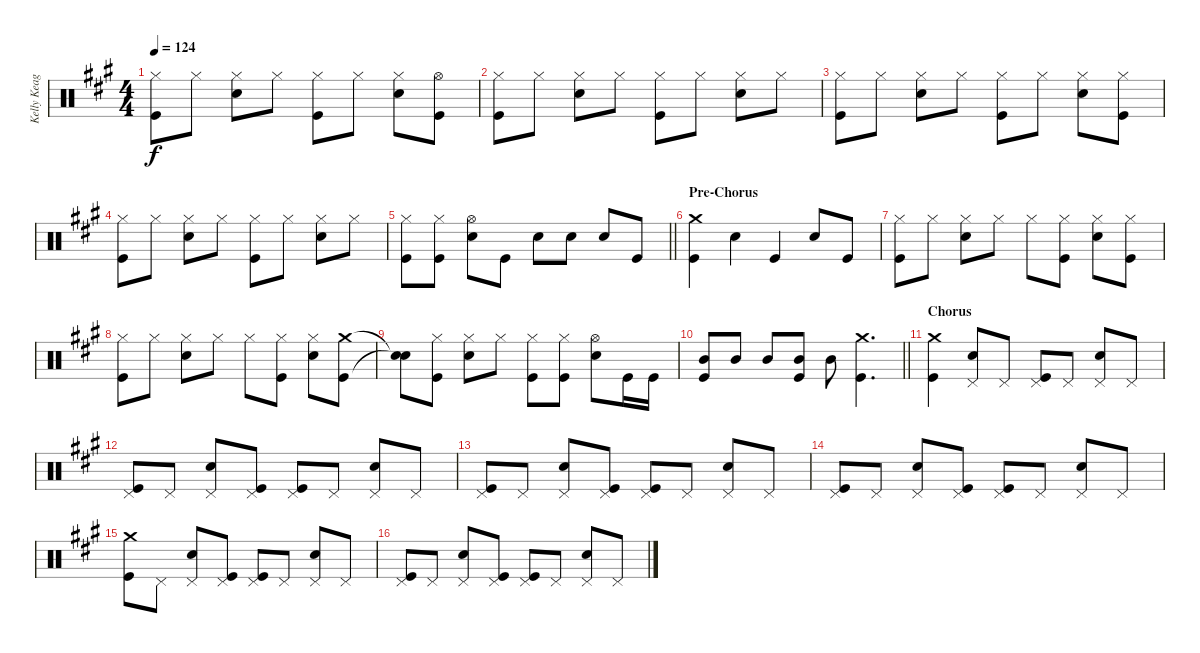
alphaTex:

\track ("Kelly Keagy" "Kelly Keag") {instrument percussion}
\staff {score}
\articulation defaults
\ts (4 4)
\tempo 124
\clef neutral
\ks a
("Hi-Hat (closed)" "Kick (hit)").8{dy f} "Hi-Hat (closed)".8 ("Hi-Hat (closed)" "Snare (hit) 2").8 "Hi-Hat (closed)".8 ("Hi-Hat (closed)" "Kick (hit)").8 "Hi-Hat (closed)".8 ("Hi-Hat (closed)" "Snare (hit) 2").8 ("Hi-Hat (open)" "Kick (hit)").8 |
("Hi-Hat (closed)" "Kick (hit)").8 "Hi-Hat (closed)".8 ("Hi-Hat (closed)" "Snare (hit) 2").8 "Hi-Hat (closed)".8 ("Hi-Hat (closed)" "Kick (hit)").8 "Hi-Hat (closed)".8 ("Hi-Hat (closed)" "Snare (hit) 2").8 "Hi-Hat (closed)".8 |
("Hi-Hat (closed)" "Kick (hit)").8 "Hi-Hat (closed)".8 ("Hi-Hat (closed)" "Snare (hit) 2").8 "Hi-Hat (closed)".8 ("Hi-Hat (closed)" "Kick (hit)").8 "Hi-Hat (closed)".8 ("Hi-Hat (closed)" "Snare (hit) 2").8 ("Hi-Hat (closed)" "Kick (hit)").8 |
("Hi-Hat (closed)" "Kick (hit)").8 "Hi-Hat (closed)".8 ("Hi-Hat (closed)" "Snare (hit) 2").8 "Hi-Hat (closed)".8 ("Hi-Hat (closed)" "Kick (hit)").8 "Hi-Hat (closed)".8 ("Hi-Hat (closed)" "Snare (hit) 2").8 "Hi-Hat (closed)".8 |
\barLineRight lightlight
("Hi-Hat (closed)" "Kick (hit)").8 ("Hi-Hat (closed)" "Kick (hit)").8 ("Hi-Hat (open)" "Snare (hit) 2").8 "Kick (hit)".8 "Snare (hit) 2".8 "Snare (hit) 2".8 "Snare (hit) 2".8 "Kick (hit)".8 |
\section ("" "Pre-Chorus")
("Crash medium (hit)" "Kick (hit)").4 "Snare (hit) 2".4 "Kick (hit)".4 "Snare (hit) 2".8 "Kick (hit)".8 |
("Hi-Hat (closed)" "Kick (hit)").8 "Hi-Hat (closed)".8 ("Hi-Hat (closed)" "Snare (hit) 2").8 "Hi-Hat (closed)".8 "Hi-Hat (closed)".8 ("Hi-Hat (closed)" "Kick (hit)").8 ("Hi-Hat (closed)" "Snare (hit) 2").8 ("Hi-Hat (closed)" "Kick (hit)").8 |
("Hi-Hat (closed)" "Kick (hit)").8 "Hi-Hat (closed)".8 ("Hi-Hat (closed)" "Snare (hit) 2").8 "Hi-Hat (closed)".8 "Hi-Hat (closed)".8 ("Hi-Hat (closed)" "Kick (hit)").8 ("Hi-Hat (closed)" "Snare (hit) 2").8 ("Crash medium (hit)" "Kick (hit)").8 |
("Snare (hit)"{t} "Snare (hit)"{t}).8 ("Hi-Hat (closed)" "Kick (hit)").8 ("Hi-Hat (closed)" "Snare (hit) 2").8 "Hi-Hat (closed)".8 ("Hi-Hat (closed)" "Kick (hit)").8 ("Hi-Hat (closed)" "Kick (hit)").8 ("Hi-Hat (open)" "Snare (hit) 2").8 "Kick (hit)".16 "Kick (hit)".16 |
\barLineRight lightlight
("Mid Tom (hit)" "Kick (hit)").8 "Mid Tom (hit)".8 "Mid Tom (hit)".8 ("Mid Tom (hit)" "Kick (hit)").8 "Mid Tom (hit)".8 ("Crash medium (hit)" "Kick (hit)").4{d} |
\section ("" "Chorus")
("Crash medium (hit)" "Kick (hit)").4 ("Pedal Hi-Hat (hit)" "Snare (hit) 2").8 "Pedal Hi-Hat (hit)".8 ("Pedal Hi-Hat (hit)" "Kick (hit)").8 "Pedal Hi-Hat (hit)".8 ("Pedal Hi-Hat (hit)" "Snare (hit) 2").8 "Pedal Hi-Hat (hit)".8 |
("Pedal Hi-Hat (hit)" "Kick (hit)").8 "Pedal Hi-Hat (hit)".8 ("Pedal Hi-Hat (hit)" "Snare (hit) 2").8 ("Pedal Hi-Hat (hit)" "Kick (hit)").8 ("Pedal Hi-Hat (hit)" "Kick (hit)").8 "Pedal Hi-Hat (hit)".8 ("Pedal Hi-Hat (hit)" "Snare (hit) 2").8 "Pedal Hi-Hat (hit)".8 |
("Pedal Hi-Hat (hit)" "Kick (hit)").8 "Pedal Hi-Hat (hit)".8 ("Pedal Hi-Hat (hit)" "Snare (hit) 2").8 ("Pedal Hi-Hat (hit)" "Kick (hit)").8 ("Pedal Hi-Hat (hit)" "Kick (hit)").8 "Pedal Hi-Hat (hit)".8 ("Pedal Hi-Hat (hit)" "Snare (hit) 2").8 "Pedal Hi-Hat (hit)".8 |
("Pedal Hi-Hat (hit)" "Kick (hit)").8 "Pedal Hi-Hat (hit)".8 ("Pedal Hi-Hat (hit)" "Snare (hit) 2").8 ("Pedal Hi-Hat (hit)" "Kick (hit)").8 ("Pedal Hi-Hat (hit)" "Kick (hit)").8 "Pedal Hi-Hat (hit)".8 ("Pedal Hi-Hat (hit)" "Snare (hit) 2").8 "Pedal Hi-Hat (hit)".8 |
("Crash medium (hit)" "Kick (hit)").8 "Pedal Hi-Hat (hit)".8 ("Pedal Hi-Hat (hit)" "Snare (hit) 2").8 ("Pedal Hi-Hat (hit)" "Kick (hit)").8 ("Pedal Hi-Hat (hit)" "Kick (hit)").8 "Pedal Hi-Hat (hit)".8 ("Pedal Hi-Hat (hit)" "Snare (hit) 2").8 "Pedal Hi-Hat (hit)".8 |
("Pedal Hi-Hat (hit)" "Kick (hit)").8 "Pedal Hi-Hat (hit)".8 ("Pedal Hi-Hat (hit)" "Snare (hit) 2").8 ("Pedal Hi-Hat (hit)" "Kick (hit)").8 ("Pedal Hi-Hat (hit)" "Kick (hit)").8 "Pedal Hi-Hat (hit)".8 ("Pedal Hi-Hat (hit)" "Snare (hit) 2").8 "Pedal Hi-Hat (hit)".8
